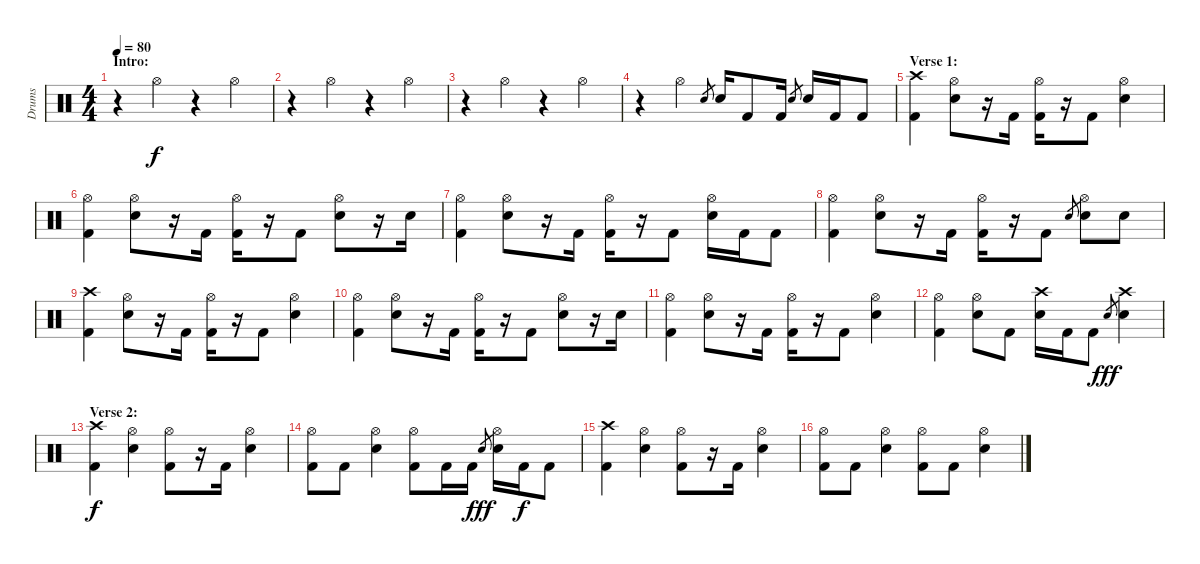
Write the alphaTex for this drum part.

\track ("Drums" "Drums") {instrument percussion}
\staff {score}
\articulation defaults
\ts (4 4)
\section ("" "Intro:")
\tempo 80
\tempo 112
\tempo 80
\clef neutral
\ks c
r.4{dy f} "Hi-Hat (open)".4 r.4 "Hi-Hat (open)".4 |
r.4 "Hi-Hat (open)".4 r.4 "Hi-Hat (open)".4 |
r.4 "Hi-Hat (open)".4 r.4 "Hi-Hat (open)".4 |
r.4 "Hi-Hat (open)".4 "Electric Snare (hit)".8{gr} "Electric Snare (hit)".16 "Kick (hit) 2".8 "Kick (hit) 2".16 "Electric Snare (hit)".8{gr} "Electric Snare (hit)".16 "Kick (hit) 2".16 "Kick (hit) 2".8 |
\section ("" "Verse 1:")
("Crash high (hit)" "Kick (hit) 2").4 ("Hi-Hat (open)" "Electric Snare (hit)").8 r.16 "Kick (hit) 2".16 ("Hi-Hat (open)" "Kick (hit) 2").16 r.16 "Kick (hit) 2".8 ("Hi-Hat (open)" "Electric Snare (hit)").4 |
("Hi-Hat (open)" "Kick (hit) 2").4 ("Hi-Hat (open)" "Electric Snare (hit)").8 r.16 "Kick (hit) 2".16 ("Hi-Hat (open)" "Kick (hit) 2").16 r.16 "Kick (hit) 2".8 ("Hi-Hat (open)" "Electric Snare (hit)").8 r.16 "Electric Snare (hit)".16 |
("Hi-Hat (open)" "Kick (hit) 2").4 ("Hi-Hat (open)" "Electric Snare (hit)").8 r.16 "Kick (hit) 2".16 ("Hi-Hat (open)" "Kick (hit) 2").16 r.16 "Kick (hit) 2".8 ("Hi-Hat (open)" "Electric Snare (hit)").16 "Kick (hit) 2".16 "Kick (hit) 2".8 |
("Hi-Hat (open)" "Kick (hit) 2").4 ("Hi-Hat (open)" "Electric Snare (hit)").8 r.16 "Kick (hit) 2".16 ("Hi-Hat (open)" "Kick (hit) 2").16 r.16 "Kick (hit) 2".8 "Electric Snare (hit)".8{gr} ("Hi-Hat (open)" "Electric Snare (hit)").8 "Electric Snare (hit)".8 |
("Crash high (hit)" "Kick (hit) 2").4 ("Hi-Hat (open)" "Electric Snare (hit)").8 r.16 "Kick (hit) 2".16 ("Hi-Hat (open)" "Kick (hit) 2").16 r.16 "Kick (hit) 2".8 ("Hi-Hat (open)" "Electric Snare (hit)").4 |
("Hi-Hat (open)" "Kick (hit) 2").4 ("Hi-Hat (open)" "Electric Snare (hit)").8 r.16 "Kick (hit) 2".16 ("Hi-Hat (open)" "Kick (hit) 2").16 r.16 "Kick (hit) 2".8 ("Hi-Hat (open)" "Electric Snare (hit)").8 r.16 "Electric Snare (hit)".16 |
("Hi-Hat (open)" "Kick (hit) 2").4 ("Hi-Hat (open)" "Electric Snare (hit)").8 r.16 "Kick (hit) 2".16 ("Hi-Hat (open)" "Kick (hit) 2").16 r.16 "Kick (hit) 2".8 ("Hi-Hat (open)" "Electric Snare (hit)").4 |
("Hi-Hat (open)" "Kick (hit) 2").4 ("Hi-Hat (open)" "Electric Snare (hit)").8 "Kick (hit) 2".8 ("Crash high (hit)" "Electric Snare (hit)").16 "Kick (hit) 2".16 "Kick (hit) 2".8 "Electric Snare (hit)".8{gr dy fff} ("Crash high (hit)" "Electric Snare (hit)").4 |
\section ("" "Verse 2:")
("Crash high (hit)" "Kick (hit) 2").4{dy f} ("Hi-Hat (open)" "Electric Snare (hit)").4 ("Hi-Hat (open)" "Kick (hit) 2").8 r.16 "Kick (hit) 2".16 ("Hi-Hat (open)" "Electric Snare (hit)").4 |
("Hi-Hat (open)" "Kick (hit) 2").8 "Kick (hit) 2".8 ("Hi-Hat (open)" "Electric Snare (hit)").4 ("Hi-Hat (open)" "Kick (hit) 2").8 "Kick (hit) 2".16 "Kick (hit) 2".16 "Electric Snare (hit)".8{gr dy fff} ("Hi-Hat (open)" "Electric Snare (hit)").16 "Kick (hit) 2".16{dy f} "Kick (hit) 2".8 |
("Crash high (hit)" "Kick (hit) 2").4 ("Hi-Hat (open)" "Electric Snare (hit)").4 ("Hi-Hat (open)" "Kick (hit) 2").8 r.16 "Kick (hit) 2".16 ("Hi-Hat (open)" "Electric Snare (hit)").4 |
("Hi-Hat (open)" "Kick (hit) 2").8 "Kick (hit) 2".8 ("Hi-Hat (open)" "Electric Snare (hit)").4 ("Hi-Hat (open)" "Kick (hit) 2").8 "Kick (hit) 2".8 ("Hi-Hat (open)" "Electric Snare (hit)").4
